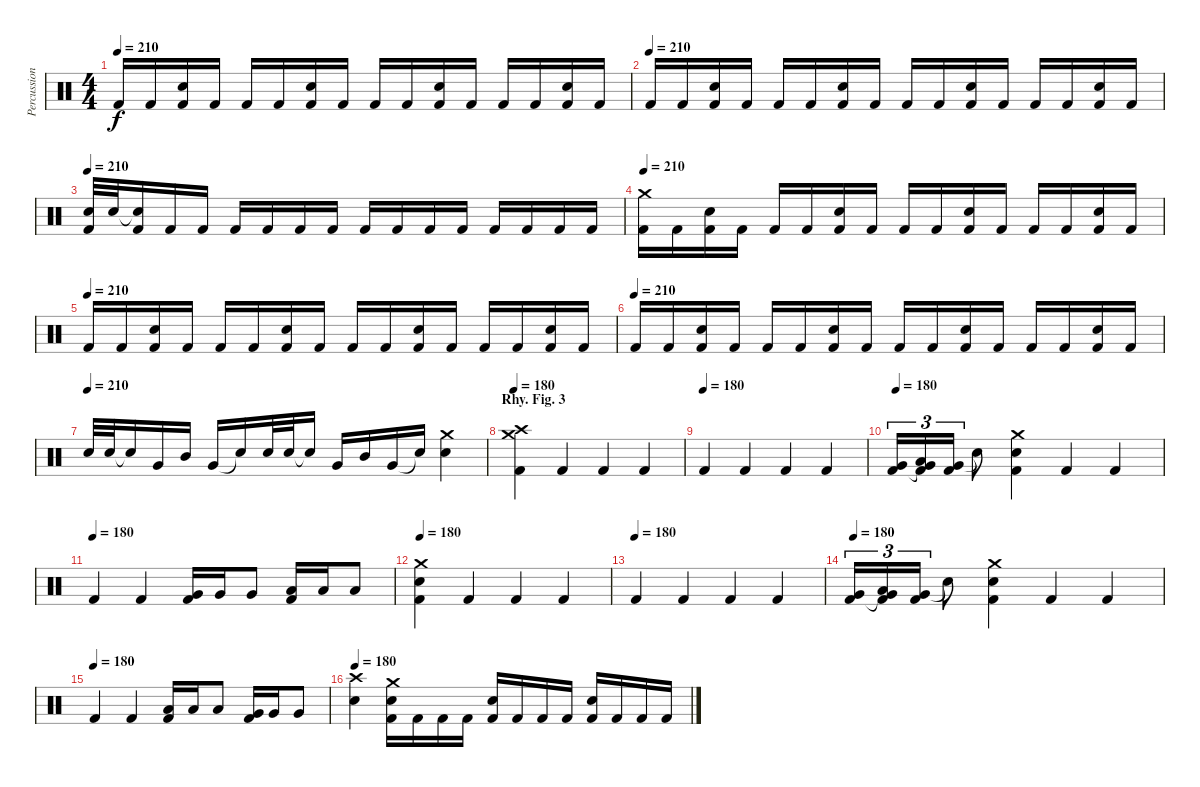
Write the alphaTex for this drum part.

\track ("Percussion" "Percussion") {instrument percussion}
\staff {score}
\articulation defaults
\ts (4 4)
\tempo 210
\clef neutral
\ks c "Kick (hit) 2".16{dy f} "Kick (hit) 2".16
("Snare (hit) 2" "Kick (hit) 2").16 "Kick (hit) 2".16 "Kick (hit) 2".16 "Kick (hit) 2".16 ("Snare (hit) 2" "Kick (hit) 2").16 "Kick (hit) 2".16 "Kick (hit) 2".16 "Kick (hit) 2".16 ("Snare (hit) 2" "Kick (hit) 2").16 "Kick (hit) 2".16 "Kick (hit) 2".16 "Kick (hit) 2".16 ("Snare (hit) 2" "Kick (hit) 2").16 "Kick (hit) 2".16 |
\tempo (210)
"Kick (hit) 2".16 "Kick (hit) 2".16 ("Snare (hit) 2" "Kick (hit) 2").16 "Kick (hit) 2".16 "Kick (hit) 2".16 "Kick (hit) 2".16 ("Snare (hit) 2" "Kick (hit) 2").16 "Kick (hit) 2".16 "Kick (hit) 2".16 "Kick (hit) 2".16 ("Snare (hit) 2" "Kick (hit) 2").16 "Kick (hit) 2".16 "Kick (hit) 2".16 "Kick (hit) 2".16 ("Snare (hit) 2" "Kick (hit) 2").16 "Kick (hit) 2".16 |
\tempo 210
("Snare (hit) 2" "Kick (hit) 2").32 "Snare (hit) 2".32 ("Snare (hit)"{t} "Kick (hit) 2").16 "Kick (hit) 2".16 "Kick (hit) 2".16 "Kick (hit) 2".16 "Kick (hit) 2".16 "Kick (hit) 2".16 "Kick (hit) 2".16 "Kick (hit) 2".16 "Kick (hit) 2".16 "Kick (hit) 2".16 "Kick (hit) 2".16 "Kick (hit) 2".16 "Kick (hit) 2".16 "Kick (hit) 2".16 "Kick (hit) 2".16 |
\tempo 210
("Crash medium (hit)" "Kick (hit) 2").16 "Kick (hit) 2".16 ("Snare (hit) 2" "Kick (hit) 2").16 "Kick (hit) 2".16 "Kick (hit) 2".16 "Kick (hit) 2".16 ("Snare (hit) 2" "Kick (hit) 2").16 "Kick (hit) 2".16 "Kick (hit) 2".16 "Kick (hit) 2".16 ("Snare (hit) 2" "Kick (hit) 2").16 "Kick (hit) 2".16 "Kick (hit) 2".16 "Kick (hit) 2".16 ("Snare (hit) 2" "Kick (hit) 2").16 "Kick (hit) 2".16 |
\tempo (210)
"Kick (hit) 2".16 "Kick (hit) 2".16 ("Snare (hit) 2" "Kick (hit) 2").16 "Kick (hit) 2".16 "Kick (hit) 2".16 "Kick (hit) 2".16 ("Snare (hit) 2" "Kick (hit) 2").16 "Kick (hit) 2".16 "Kick (hit) 2".16 "Kick (hit) 2".16 ("Snare (hit) 2" "Kick (hit) 2").16 "Kick (hit) 2".16 "Kick (hit) 2".16 "Kick (hit) 2".16 ("Snare (hit) 2" "Kick (hit) 2").16 "Kick (hit) 2".16 |
\tempo (210)
"Kick (hit) 2".16 "Kick (hit) 2".16 ("Snare (hit) 2" "Kick (hit) 2").16 "Kick (hit) 2".16 "Kick (hit) 2".16 "Kick (hit) 2".16 ("Snare (hit) 2" "Kick (hit) 2").16 "Kick (hit) 2".16 "Kick (hit) 2".16 "Kick (hit) 2".16 ("Snare (hit) 2" "Kick (hit) 2").16 "Kick (hit) 2".16 "Kick (hit) 2".16 "Kick (hit) 2".16 ("Snare (hit) 2" "Kick (hit) 2").16 "Kick (hit) 2".16 |
\tempo (210)
"Snare (hit) 2".32 "Snare (hit) 2".32 "Snare (hit)"{t}.16 "Very Low Tom (hit)".16 "Mid Tom (hit)".16 "Very Low Tom (hit)".16 "Snare (hit)"{t}.16 "Snare (hit) 2".32 "Snare (hit) 2".32 "Snare (hit)"{t}.16 "Very Low Tom (hit)".16 "Mid Tom (hit)".16 "Very Low Tom (hit)".16 "Snare (hit)"{t}.16 ("Crash medium (hit)" "Snare (hit) 2").4 |
\section ("" "Rhy. Fig. 3")
\tempo 180
("Crash medium (hit)" "Crash high (hit)" "Kick (hit) 2").4 "Kick (hit) 2".4 "Kick (hit) 2".4 "Kick (hit) 2".4 |
\tempo (180)
"Kick (hit) 2".4 "Kick (hit) 2".4 "Kick (hit) 2".4 "Kick (hit) 2".4 |
\tempo 180
("Very Low Tom (hit)" "Kick (hit) 2").16{tu (3 2)} ("Low Tom (hit)" "Very Low Tom (hit)"{t} "Kick (hit) 2").16{tu (3 2)} ("Very Low Tom (hit)" "Kick (hit) 2").16{tu (3 2)} "Snare (hit)"{t}.8 ("Crash medium (hit)" "Snare (hit) 2" "Kick (hit) 2").4 "Kick (hit) 2".4 "Kick (hit) 2".4 |
\tempo (180)
"Kick (hit) 2".4 "Kick (hit) 2".4 ("Very Low Tom (hit)" "Kick (hit) 2").16 "Very Low Tom (hit)".16 "Very Low Tom (hit)".8 ("Low Floor Tom (hit)" "Kick (hit) 2").16 "Low Floor Tom (hit)".16 "Low Floor Tom (hit)".8 |
\tempo 180
("Crash medium (hit)" "Snare (hit) 2" "Kick (hit) 2").4 "Kick (hit) 2".4 "Kick (hit) 2".4 "Kick (hit) 2".4 |
\tempo (180)
"Kick (hit) 2".4 "Kick (hit) 2".4 "Kick (hit) 2".4 "Kick (hit) 2".4 |
\tempo 180
("Very Low Tom (hit)" "Kick (hit) 2").16{tu (3 2)} ("Low Tom (hit)" "Very Low Tom (hit)"{t} "Kick (hit) 2").16{tu (3 2)} ("Very Low Tom (hit)" "Kick (hit) 2").16{tu (3 2)} "Snare (hit)"{t}.8 ("Crash medium (hit)" "Snare (hit) 2" "Kick (hit) 2").4 "Kick (hit) 2".4 "Kick (hit) 2".4 |
\tempo (180)
"Kick (hit) 2".4 "Kick (hit) 2".4 ("Low Tom (hit)" "Kick (hit) 2").16 "Low Tom (hit)".16 "Low Tom (hit)".8 ("Very Low Tom (hit)" "Kick (hit) 2").16 "Very Low Tom (hit)".16 "Very Low Tom (hit)".8 |
\tempo 180
("Crash high (hit)" "Snare (hit) 2").4 ("Crash medium (hit)" "Snare (hit) 2" "Kick (hit) 2").16 "Kick (hit) 2".16 "Kick (hit) 2".16 "Kick (hit) 2".16 ("Snare (hit) 2" "Kick (hit) 2").16 "Kick (hit) 2".16 "Kick (hit) 2".16 "Kick (hit) 2".16 ("Snare (hit) 2" "Kick (hit) 2").16 "Kick (hit) 2".16 "Kick (hit) 2".16 "Kick (hit) 2".16
